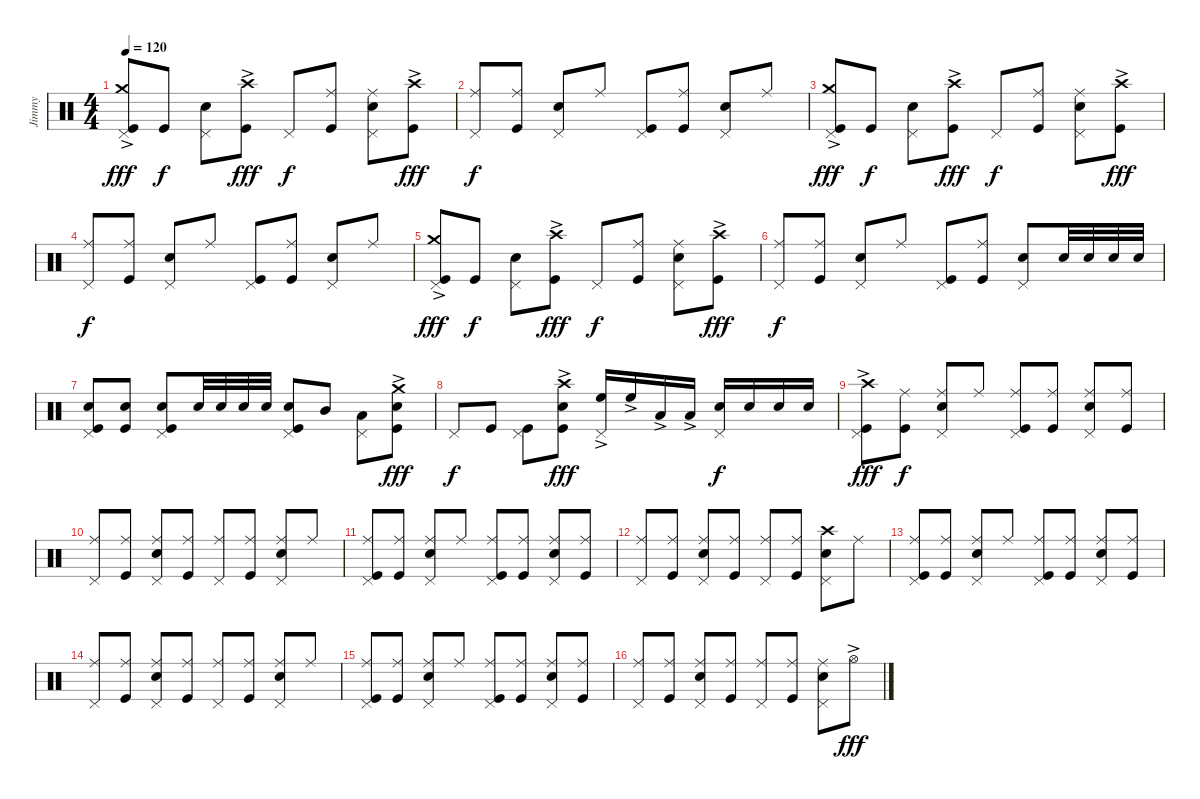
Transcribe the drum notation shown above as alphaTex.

\track ("Jimmy" "Jimmy") {instrument percussion}
\staff {score}
\articulation defaults
\ts (4 4)
\tempo 120
\clef neutral
\ks c
("Pedal Hi-Hat (hit)" "Crash medium (hit)"{ac} "Kick (hit)").8{dy fff} "Kick (hit)".8{dy f} ("Pedal Hi-Hat (hit)" "Snare (hit) 2").8 ("Crash high (hit)"{ac} "Kick (hit)").8{dy fff} "Pedal Hi-Hat (hit)".8{dy f} ("Ride (middle)" "Kick (hit)").8 ("Pedal Hi-Hat (hit)" "Ride (middle)" "Snare (hit) 2").8 ("Crash high (hit)"{ac} "Kick (hit)").8{dy fff} |
("Pedal Hi-Hat (hit)" "Ride (middle)").8{dy f} ("Ride (middle)" "Kick (hit)").8 ("Pedal Hi-Hat (hit)" "Snare (hit) 2").8 "Ride (middle)".8 ("Pedal Hi-Hat (hit)" "Kick (hit)").8 ("Ride (middle)" "Kick (hit)").8 ("Pedal Hi-Hat (hit)" "Snare (hit) 2").8 "Ride (middle)".8 |
("Pedal Hi-Hat (hit)" "Crash medium (hit)"{ac} "Kick (hit)").8{dy fff} "Kick (hit)".8{dy f} ("Pedal Hi-Hat (hit)" "Snare (hit) 2").8 ("Crash high (hit)"{ac} "Kick (hit)").8{dy fff} "Pedal Hi-Hat (hit)".8{dy f} ("Ride (middle)" "Kick (hit)").8 ("Pedal Hi-Hat (hit)" "Ride (middle)" "Snare (hit) 2").8 ("Crash high (hit)"{ac} "Kick (hit)").8{dy fff} |
("Pedal Hi-Hat (hit)" "Ride (middle)").8{dy f} ("Ride (middle)" "Kick (hit)").8 ("Pedal Hi-Hat (hit)" "Snare (hit) 2").8 "Ride (middle)".8 ("Pedal Hi-Hat (hit)" "Kick (hit)").8 ("Ride (middle)" "Kick (hit)").8 ("Pedal Hi-Hat (hit)" "Snare (hit) 2").8 "Ride (middle)".8 |
("Pedal Hi-Hat (hit)" "Crash medium (hit)"{ac} "Kick (hit)").8{dy fff} "Kick (hit)".8{dy f} ("Pedal Hi-Hat (hit)" "Snare (hit) 2").8 ("Crash high (hit)"{ac} "Kick (hit)").8{dy fff} "Pedal Hi-Hat (hit)".8{dy f} ("Ride (middle)" "Kick (hit)").8 ("Pedal Hi-Hat (hit)" "Ride (middle)" "Snare (hit) 2").8 ("Crash high (hit)"{ac} "Kick (hit)").8{dy fff} |
("Pedal Hi-Hat (hit)" "Ride (middle)").8{dy f} ("Ride (middle)" "Kick (hit)").8 ("Pedal Hi-Hat (hit)" "Snare (hit) 2").8 "Ride (middle)".8 ("Pedal Hi-Hat (hit)" "Kick (hit)").8 ("Ride (middle)" "Kick (hit)").8 ("Pedal Hi-Hat (hit)" "Snare (hit) 2").8 "Snare (hit) 2".32 "Snare (hit) 2".32 "Snare (hit) 2".32 "Snare (hit) 2".32 |
("Pedal Hi-Hat (hit)" "Kick (hit)" "Snare (hit) 2").8 ("Kick (hit)" "Snare (hit) 2").8 ("Pedal Hi-Hat (hit)" "Kick (hit)" "Snare (hit) 2").8 "Snare (hit) 2".32 "Snare (hit) 2".32 "Snare (hit) 2".32 "Snare (hit) 2".32 ("Pedal Hi-Hat (hit)" "Kick (hit)" "Snare (hit) 2").8 "Mid Tom (hit)".8 ("Pedal Hi-Hat (hit)" "Low Floor Tom (hit)").8 ("Crash medium (hit)"{ac} "Kick (hit)" "Snare (hit) 2").8{dy fff} |
"Pedal Hi-Hat (hit)".8{dy f} "Kick (hit)".8 ("Pedal Hi-Hat (hit)" "Kick (hit)").8 ("Crash high (hit)"{ac} "Kick (hit)" "Snare (hit) 2").8{dy fff} ("Pedal Hi-Hat (hit)" "High Floor Tom (hit)"{ac}).16 "High Floor Tom (hit)"{ac}.16 "Low Tom (hit)"{ac}.16 "Low Tom (hit)"{ac}.16 ("Pedal Hi-Hat (hit)" "Snare (hit) 2").16{dy f} "Snare (hit) 2".16 "Snare (hit) 2".16 "Snare (hit) 2".16 |
\section ("" "")
("Pedal Hi-Hat (hit)" "Crash high (hit)"{ac} "Kick (hit)").8{dy fff} ("Ride (middle)" "Kick (hit)").8{dy f} ("Pedal Hi-Hat (hit)" "Ride (middle)" "Snare (hit) 2").8 "Ride (middle)".8 ("Pedal Hi-Hat (hit)" "Ride (middle)" "Kick (hit)").8 ("Ride (middle)" "Kick (hit)").8 ("Pedal Hi-Hat (hit)" "Ride (middle)" "Snare (hit) 2").8 ("Ride (middle)" "Kick (hit)").8 |
("Pedal Hi-Hat (hit)" "Ride (middle)").8 ("Ride (middle)" "Kick (hit)").8 ("Pedal Hi-Hat (hit)" "Ride (middle)" "Snare (hit) 2").8 ("Ride (middle)" "Kick (hit)").8 ("Pedal Hi-Hat (hit)" "Ride (middle)").8 ("Ride (middle)" "Kick (hit)").8 ("Pedal Hi-Hat (hit)" "Ride (middle)" "Snare (hit) 2").8 "Ride (middle)".8 |
("Pedal Hi-Hat (hit)" "Ride (middle)" "Kick (hit)").8 ("Ride (middle)" "Kick (hit)").8 ("Pedal Hi-Hat (hit)" "Ride (middle)" "Snare (hit) 2").8 "Ride (middle)".8 ("Pedal Hi-Hat (hit)" "Ride (middle)" "Kick (hit)").8 ("Ride (middle)" "Kick (hit)").8 ("Pedal Hi-Hat (hit)" "Ride (middle)" "Snare (hit) 2").8 ("Ride (middle)" "Kick (hit)").8 |
("Pedal Hi-Hat (hit)" "Ride (middle)").8 ("Ride (middle)" "Kick (hit)").8 ("Pedal Hi-Hat (hit)" "Ride (middle)" "Snare (hit) 2").8 ("Ride (middle)" "Kick (hit)").8 ("Pedal Hi-Hat (hit)" "Ride (middle)").8 ("Ride (middle)" "Kick (hit)").8 ("Pedal Hi-Hat (hit)" "Crash high (hit)" "Snare (hit) 2").8 "Ride (middle)".8 |
("Pedal Hi-Hat (hit)" "Ride (middle)" "Kick (hit)").8 ("Ride (middle)" "Kick (hit)").8 ("Pedal Hi-Hat (hit)" "Ride (middle)" "Snare (hit) 2").8 "Ride (middle)".8 ("Pedal Hi-Hat (hit)" "Ride (middle)" "Kick (hit)").8 ("Ride (middle)" "Kick (hit)").8 ("Pedal Hi-Hat (hit)" "Ride (middle)" "Snare (hit) 2").8 ("Ride (middle)" "Kick (hit)").8 |
("Pedal Hi-Hat (hit)" "Ride (middle)").8 ("Ride (middle)" "Kick (hit)").8 ("Pedal Hi-Hat (hit)" "Ride (middle)" "Snare (hit) 2").8 ("Ride (middle)" "Kick (hit)").8 ("Pedal Hi-Hat (hit)" "Ride (middle)").8 ("Ride (middle)" "Kick (hit)").8 ("Pedal Hi-Hat (hit)" "Ride (middle)" "Snare (hit) 2").8 "Ride (middle)".8 |
("Pedal Hi-Hat (hit)" "Ride (middle)" "Kick (hit)").8 ("Ride (middle)" "Kick (hit)").8 ("Pedal Hi-Hat (hit)" "Ride (middle)" "Snare (hit) 2").8 "Ride (middle)".8 ("Pedal Hi-Hat (hit)" "Ride (middle)" "Kick (hit)").8 ("Ride (middle)" "Kick (hit)").8 ("Pedal Hi-Hat (hit)" "Ride (middle)" "Snare (hit) 2").8 ("Ride (middle)" "Kick (hit)").8 |
("Pedal Hi-Hat (hit)" "Ride (middle)").8 ("Ride (middle)" "Kick (hit)").8 ("Pedal Hi-Hat (hit)" "Ride (middle)" "Snare (hit) 2").8 ("Ride (middle)" "Kick (hit)").8 ("Pedal Hi-Hat (hit)" "Ride (middle)").8 ("Ride (middle)" "Kick (hit)").8 ("Pedal Hi-Hat (hit)" "Ride (middle)" "Snare (hit) 2").8 "Hi-Hat (open)"{ac}.8{dy fff}
